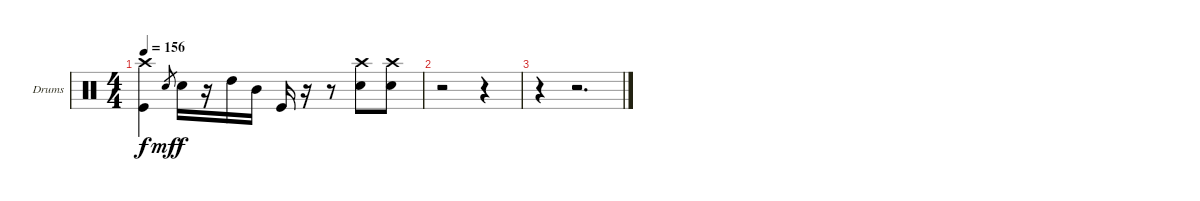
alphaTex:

\bracketExtendMode groupsimilarinstruments
\firstSystemTrackNameOrientation horizontal
\otherSystemsTrackNameOrientation horizontal
\track ("Drumkit" "Drums") {instrument percussion}
\staff {score}
\articulation defaults
\ts (4 4)
\tempo 156
\clef neutral
\ks c
("Crash high (hit)" "Kick (hit)").4{dy f} "Snare (hit) 2".8{gr dy mf} "Snare (hit) 2".16{dy f} r.16 "High Tom (hit)".16 "Mid Tom (hit)".16 "Kick (hit)".16 r.16 r.8 ("Crash high (hit)" "Snare (hit) 2").8 ("Crash high (hit)" "Snare (hit) 2").8 |
r.2 r.4 |
r.4 r.2{d}
